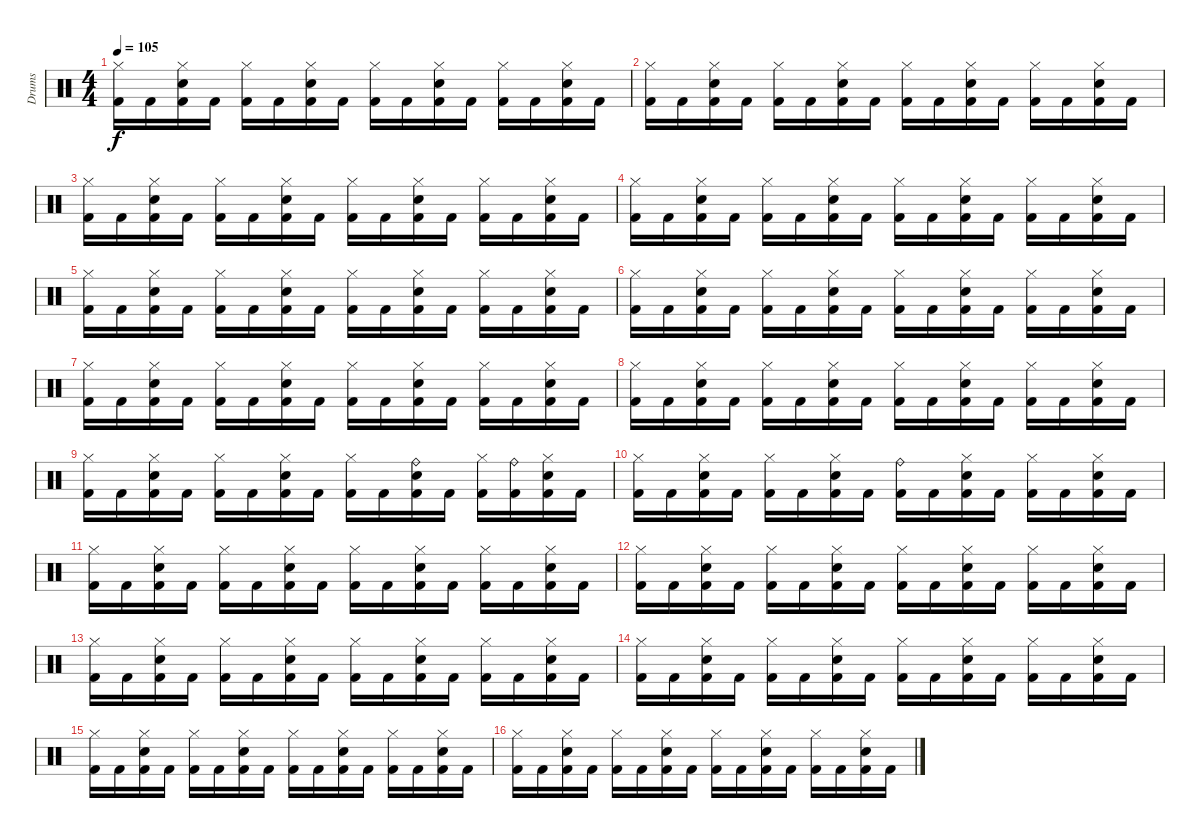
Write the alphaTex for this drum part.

\track ("Drums" "Drums") {instrument percussion}
\staff {score}
\articulation defaults
\ts (4 4)
\tempo 105
\clef neutral
\ks c
("Kick (hit) 2" "Hi-Hat (closed)").16{dy f} "Kick (hit) 2".16 ("Kick (hit) 2" "Snare (hit) 2" "Hi-Hat (closed)").16 "Kick (hit) 2".16 ("Kick (hit) 2" "Hi-Hat (closed)").16 "Kick (hit) 2".16 ("Kick (hit) 2" "Snare (hit) 2" "Hi-Hat (closed)").16 "Kick (hit) 2".16 ("Kick (hit) 2" "Hi-Hat (closed)").16 "Kick (hit) 2".16 ("Kick (hit) 2" "Snare (hit) 2" "Hi-Hat (closed)").16 "Kick (hit) 2".16 ("Kick (hit) 2" "Hi-Hat (closed)").16 "Kick (hit) 2".16 ("Kick (hit) 2" "Snare (hit) 2" "Hi-Hat (closed)").16 "Kick (hit) 2".16 |
("Kick (hit) 2" "Hi-Hat (closed)").16 "Kick (hit) 2".16 ("Kick (hit) 2" "Snare (hit) 2" "Hi-Hat (closed)").16 "Kick (hit) 2".16 ("Kick (hit) 2" "Hi-Hat (closed)").16 "Kick (hit) 2".16 ("Kick (hit) 2" "Snare (hit) 2" "Hi-Hat (closed)").16 "Kick (hit) 2".16 ("Kick (hit) 2" "Hi-Hat (closed)").16 "Kick (hit) 2".16 ("Kick (hit) 2" "Snare (hit) 2" "Hi-Hat (closed)").16 "Kick (hit) 2".16 ("Kick (hit) 2" "Hi-Hat (closed)").16 "Kick (hit) 2".16 ("Kick (hit) 2" "Snare (hit) 2" "Hi-Hat (closed)").16 "Kick (hit) 2".16 |
("Kick (hit) 2" "Hi-Hat (closed)").16 "Kick (hit) 2".16 ("Kick (hit) 2" "Snare (hit) 2" "Hi-Hat (closed)").16 "Kick (hit) 2".16 ("Kick (hit) 2" "Hi-Hat (closed)").16 "Kick (hit) 2".16 ("Kick (hit) 2" "Snare (hit) 2" "Hi-Hat (closed)").16 "Kick (hit) 2".16 ("Kick (hit) 2" "Hi-Hat (closed)").16 "Kick (hit) 2".16 ("Kick (hit) 2" "Snare (hit) 2" "Hi-Hat (closed)").16 "Kick (hit) 2".16 ("Kick (hit) 2" "Hi-Hat (closed)").16 "Kick (hit) 2".16 ("Kick (hit) 2" "Snare (hit) 2" "Hi-Hat (closed)").16 "Kick (hit) 2".16 |
("Kick (hit) 2" "Hi-Hat (closed)").16 "Kick (hit) 2".16 ("Kick (hit) 2" "Snare (hit) 2" "Hi-Hat (closed)").16 "Kick (hit) 2".16 ("Kick (hit) 2" "Hi-Hat (closed)").16 "Kick (hit) 2".16 ("Kick (hit) 2" "Snare (hit) 2" "Hi-Hat (closed)").16 "Kick (hit) 2".16 ("Kick (hit) 2" "Hi-Hat (closed)").16 "Kick (hit) 2".16 ("Kick (hit) 2" "Snare (hit) 2" "Hi-Hat (closed)").16 "Kick (hit) 2".16 ("Kick (hit) 2" "Hi-Hat (closed)").16 "Kick (hit) 2".16 ("Kick (hit) 2" "Snare (hit) 2" "Hi-Hat (closed)").16 "Kick (hit) 2".16 |
("Kick (hit) 2" "Hi-Hat (closed)").16 "Kick (hit) 2".16 ("Kick (hit) 2" "Snare (hit) 2" "Hi-Hat (closed)").16 "Kick (hit) 2".16 ("Kick (hit) 2" "Hi-Hat (closed)").16 "Kick (hit) 2".16 ("Kick (hit) 2" "Snare (hit) 2" "Hi-Hat (closed)").16 "Kick (hit) 2".16 ("Kick (hit) 2" "Hi-Hat (closed)").16 "Kick (hit) 2".16 ("Kick (hit) 2" "Snare (hit) 2" "Hi-Hat (closed)").16 "Kick (hit) 2".16 ("Kick (hit) 2" "Hi-Hat (closed)").16 "Kick (hit) 2".16 ("Kick (hit) 2" "Snare (hit) 2" "Hi-Hat (closed)").16 "Kick (hit) 2".16 |
("Kick (hit) 2" "Hi-Hat (closed)").16 "Kick (hit) 2".16 ("Kick (hit) 2" "Snare (hit) 2" "Hi-Hat (closed)").16 "Kick (hit) 2".16 ("Kick (hit) 2" "Hi-Hat (closed)").16 "Kick (hit) 2".16 ("Kick (hit) 2" "Snare (hit) 2" "Hi-Hat (closed)").16 "Kick (hit) 2".16 ("Kick (hit) 2" "Hi-Hat (closed)").16 "Kick (hit) 2".16 ("Kick (hit) 2" "Snare (hit) 2" "Hi-Hat (closed)").16 "Kick (hit) 2".16 ("Kick (hit) 2" "Hi-Hat (closed)").16 "Kick (hit) 2".16 ("Kick (hit) 2" "Snare (hit) 2" "Hi-Hat (closed)").16 "Kick (hit) 2".16 |
("Kick (hit) 2" "Hi-Hat (closed)").16 "Kick (hit) 2".16 ("Kick (hit) 2" "Snare (hit) 2" "Hi-Hat (closed)").16 "Kick (hit) 2".16 ("Kick (hit) 2" "Hi-Hat (closed)").16 "Kick (hit) 2".16 ("Kick (hit) 2" "Snare (hit) 2" "Hi-Hat (closed)").16 "Kick (hit) 2".16 ("Kick (hit) 2" "Hi-Hat (closed)").16 "Kick (hit) 2".16 ("Kick (hit) 2" "Snare (hit) 2" "Hi-Hat (closed)").16 "Kick (hit) 2".16 ("Kick (hit) 2" "Hi-Hat (closed)").16 "Kick (hit) 2".16 ("Kick (hit) 2" "Snare (hit) 2" "Hi-Hat (closed)").16 "Kick (hit) 2".16 |
("Kick (hit) 2" "Hi-Hat (closed)").16 "Kick (hit) 2".16 ("Kick (hit) 2" "Snare (hit) 2" "Hi-Hat (closed)").16 "Kick (hit) 2".16 ("Kick (hit) 2" "Hi-Hat (closed)").16 "Kick (hit) 2".16 ("Kick (hit) 2" "Snare (hit) 2" "Hi-Hat (closed)").16 "Kick (hit) 2".16 ("Kick (hit) 2" "Hi-Hat (closed)").16 "Kick (hit) 2".16 ("Kick (hit) 2" "Snare (hit) 2" "Hi-Hat (closed)").16 "Kick (hit) 2".16 ("Kick (hit) 2" "Hi-Hat (closed)").16 "Kick (hit) 2".16 ("Kick (hit) 2" "Snare (hit) 2" "Hi-Hat (closed)").16 "Kick (hit) 2".16 |
("Kick (hit) 2" "Hi-Hat (closed)").16 "Kick (hit) 2".16 ("Kick (hit) 2" "Snare (hit) 2" "Hi-Hat (closed)").16 "Kick (hit) 2".16 ("Kick (hit) 2" "Hi-Hat (closed)").16 "Kick (hit) 2".16 ("Kick (hit) 2" "Snare (hit) 2" "Hi-Hat (closed)").16 "Kick (hit) 2".16 ("Kick (hit) 2" "Hi-Hat (closed)").16 "Kick (hit) 2".16 ("Kick (hit) 2" "Snare (hit) 2" "Ride (bell)").16 "Kick (hit) 2".16 ("Kick (hit) 2" "Hi-Hat (closed)").16 ("Kick (hit) 2" "Ride (bell)").16 ("Kick (hit) 2" "Snare (hit) 2" "Hi-Hat (closed)").16 "Kick (hit) 2".16 |
("Kick (hit) 2" "Hi-Hat (closed)").16 "Kick (hit) 2".16 ("Kick (hit) 2" "Snare (hit) 2" "Hi-Hat (closed)").16 "Kick (hit) 2".16 ("Kick (hit) 2" "Hi-Hat (closed)").16 "Kick (hit) 2".16 ("Kick (hit) 2" "Snare (hit) 2" "Hi-Hat (closed)").16 "Kick (hit) 2".16 ("Kick (hit) 2" "Ride (bell)").16 "Kick (hit) 2".16 ("Kick (hit) 2" "Snare (hit) 2" "Hi-Hat (closed)").16 "Kick (hit) 2".16 ("Kick (hit) 2" "Hi-Hat (closed)").16 "Kick (hit) 2".16 ("Kick (hit) 2" "Snare (hit) 2" "Hi-Hat (closed)").16 "Kick (hit) 2".16 |
("Kick (hit) 2" "Hi-Hat (closed)").16 "Kick (hit) 2".16 ("Kick (hit) 2" "Snare (hit) 2" "Hi-Hat (closed)").16 "Kick (hit) 2".16 ("Kick (hit) 2" "Hi-Hat (closed)").16 "Kick (hit) 2".16 ("Kick (hit) 2" "Snare (hit) 2" "Hi-Hat (closed)").16 "Kick (hit) 2".16 ("Kick (hit) 2" "Hi-Hat (closed)").16 "Kick (hit) 2".16 ("Kick (hit) 2" "Snare (hit) 2" "Hi-Hat (closed)").16 "Kick (hit) 2".16 ("Kick (hit) 2" "Hi-Hat (closed)").16 "Kick (hit) 2".16 ("Kick (hit) 2" "Snare (hit) 2" "Hi-Hat (closed)").16 "Kick (hit) 2".16 |
("Kick (hit) 2" "Hi-Hat (closed)").16 "Kick (hit) 2".16 ("Kick (hit) 2" "Snare (hit) 2" "Hi-Hat (closed)").16 "Kick (hit) 2".16 ("Kick (hit) 2" "Hi-Hat (closed)").16 "Kick (hit) 2".16 ("Kick (hit) 2" "Snare (hit) 2" "Hi-Hat (closed)").16 "Kick (hit) 2".16 ("Kick (hit) 2" "Hi-Hat (closed)").16 "Kick (hit) 2".16 ("Kick (hit) 2" "Snare (hit) 2" "Hi-Hat (closed)").16 "Kick (hit) 2".16 ("Kick (hit) 2" "Hi-Hat (closed)").16 "Kick (hit) 2".16 ("Kick (hit) 2" "Snare (hit) 2" "Hi-Hat (closed)").16 "Kick (hit) 2".16 |
("Kick (hit) 2" "Hi-Hat (closed)").16 "Kick (hit) 2".16 ("Kick (hit) 2" "Snare (hit) 2" "Hi-Hat (closed)").16 "Kick (hit) 2".16 ("Kick (hit) 2" "Hi-Hat (closed)").16 "Kick (hit) 2".16 ("Kick (hit) 2" "Snare (hit) 2" "Hi-Hat (closed)").16 "Kick (hit) 2".16 ("Kick (hit) 2" "Hi-Hat (closed)").16 "Kick (hit) 2".16 ("Kick (hit) 2" "Snare (hit) 2" "Hi-Hat (closed)").16 "Kick (hit) 2".16 ("Kick (hit) 2" "Hi-Hat (closed)").16 "Kick (hit) 2".16 ("Kick (hit) 2" "Snare (hit) 2" "Hi-Hat (closed)").16 "Kick (hit) 2".16 |
("Kick (hit) 2" "Hi-Hat (closed)").16 "Kick (hit) 2".16 ("Kick (hit) 2" "Snare (hit) 2" "Hi-Hat (closed)").16 "Kick (hit) 2".16 ("Kick (hit) 2" "Hi-Hat (closed)").16 "Kick (hit) 2".16 ("Kick (hit) 2" "Snare (hit) 2" "Hi-Hat (closed)").16 "Kick (hit) 2".16 ("Kick (hit) 2" "Hi-Hat (closed)").16 "Kick (hit) 2".16 ("Kick (hit) 2" "Snare (hit) 2" "Hi-Hat (closed)").16 "Kick (hit) 2".16 ("Kick (hit) 2" "Hi-Hat (closed)").16 "Kick (hit) 2".16 ("Kick (hit) 2" "Snare (hit) 2" "Hi-Hat (closed)").16 "Kick (hit) 2".16 |
("Kick (hit) 2" "Hi-Hat (closed)").16 "Kick (hit) 2".16 ("Kick (hit) 2" "Snare (hit) 2" "Hi-Hat (closed)").16 "Kick (hit) 2".16 ("Kick (hit) 2" "Hi-Hat (closed)").16 "Kick (hit) 2".16 ("Kick (hit) 2" "Snare (hit) 2" "Hi-Hat (closed)").16 "Kick (hit) 2".16 ("Kick (hit) 2" "Hi-Hat (closed)").16 "Kick (hit) 2".16 ("Kick (hit) 2" "Snare (hit) 2" "Hi-Hat (closed)").16 "Kick (hit) 2".16 ("Kick (hit) 2" "Hi-Hat (closed)").16 "Kick (hit) 2".16 ("Kick (hit) 2" "Snare (hit) 2" "Hi-Hat (closed)").16 "Kick (hit) 2".16 |
("Kick (hit) 2" "Hi-Hat (closed)").16 "Kick (hit) 2".16 ("Kick (hit) 2" "Snare (hit) 2" "Hi-Hat (closed)").16 "Kick (hit) 2".16 ("Kick (hit) 2" "Hi-Hat (closed)").16 "Kick (hit) 2".16 ("Kick (hit) 2" "Snare (hit) 2" "Hi-Hat (closed)").16 "Kick (hit) 2".16 ("Kick (hit) 2" "Hi-Hat (closed)").16 "Kick (hit) 2".16 ("Kick (hit) 2" "Snare (hit) 2" "Hi-Hat (closed)").16 "Kick (hit) 2".16 ("Kick (hit) 2" "Hi-Hat (closed)").16 "Kick (hit) 2".16 ("Kick (hit) 2" "Snare (hit) 2" "Hi-Hat (closed)").16 "Kick (hit) 2".16
